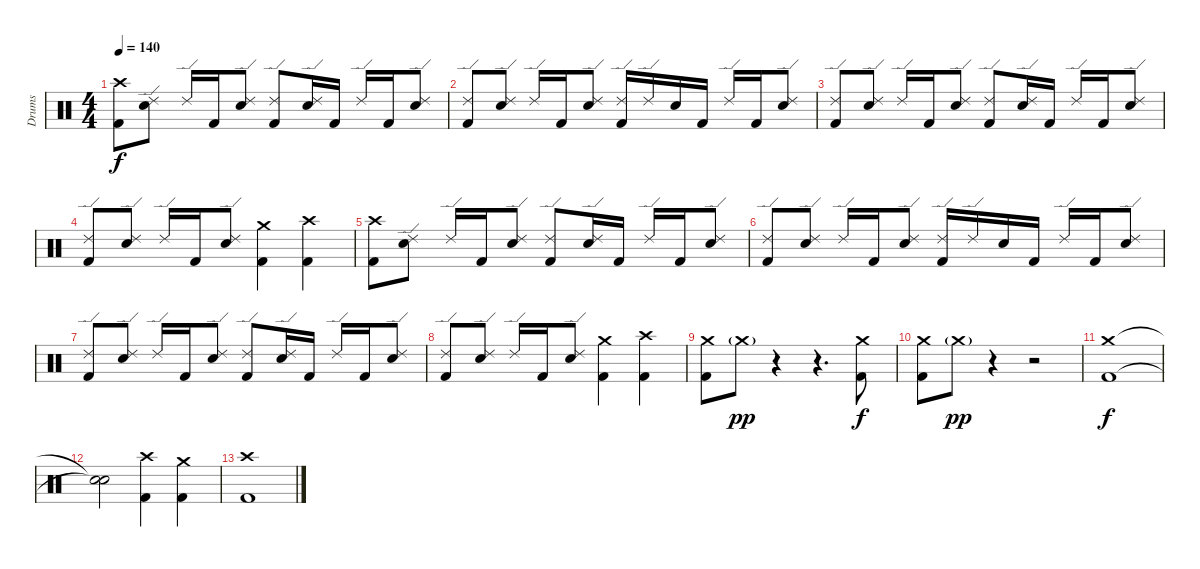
\track ("Drums" "Drums") {instrument percussion}
\staff {score}
\articulation defaults
\ts (4 4)
\tempo 140
\clef neutral
\ks c
("Crash high (hit)" "Kick (hit) 2").8{dy f} ("Ride (edge) 2" "Electric Snare (hit)").8 "Ride (edge) 2".16 "Kick (hit) 2".16 ("Ride (edge) 2" "Electric Snare (hit)").8 ("Ride (edge) 2" "Kick (hit) 2").8 ("Ride (edge) 2" "Electric Snare (hit)").16 "Kick (hit) 2".16 "Ride (edge) 2".16 "Kick (hit) 2".16 ("Ride (edge) 2" "Electric Snare (hit)").8 |
("Ride (edge) 2" "Kick (hit) 2").8 ("Ride (edge) 2" "Electric Snare (hit)").8 "Ride (edge) 2".16 "Kick (hit) 2".16 ("Ride (edge) 2" "Electric Snare (hit)").8 ("Ride (edge) 2" "Kick (hit) 2").16 "Ride (edge) 2".16 "Electric Snare (hit)".16 "Kick (hit) 2".16 "Ride (edge) 2".16 "Kick (hit) 2".16 ("Ride (edge) 2" "Electric Snare (hit)").8 |
("Ride (edge) 2" "Kick (hit) 2").8 ("Ride (edge) 2" "Electric Snare (hit)").8 "Ride (edge) 2".16 "Kick (hit) 2".16 ("Ride (edge) 2" "Electric Snare (hit)").8 ("Ride (edge) 2" "Kick (hit) 2").8 ("Ride (edge) 2" "Electric Snare (hit)").16 "Kick (hit) 2".16 "Ride (edge) 2".16 "Kick (hit) 2".16 ("Ride (edge) 2" "Electric Snare (hit)").8 |
("Ride (edge) 2" "Kick (hit) 2").8 ("Ride (edge) 2" "Electric Snare (hit)").8 "Ride (edge) 2".16 "Kick (hit) 2".16 ("Ride (edge) 2" "Electric Snare (hit)").8 ("Crash medium (hit)" "Kick (hit) 2").4 ("Crash high (hit)" "Kick (hit) 2").4 |
("Crash high (hit)" "Kick (hit) 2").8 ("Ride (edge) 2" "Electric Snare (hit)").8 "Ride (edge) 2".16 "Kick (hit) 2".16 ("Ride (edge) 2" "Electric Snare (hit)").8 ("Ride (edge) 2" "Kick (hit) 2").8 ("Ride (edge) 2" "Electric Snare (hit)").16 "Kick (hit) 2".16 "Ride (edge) 2".16 "Kick (hit) 2".16 ("Ride (edge) 2" "Electric Snare (hit)").8 |
("Ride (edge) 2" "Kick (hit) 2").8 ("Ride (edge) 2" "Electric Snare (hit)").8 "Ride (edge) 2".16 "Kick (hit) 2".16 ("Ride (edge) 2" "Electric Snare (hit)").8 ("Ride (edge) 2" "Kick (hit) 2").16 "Ride (edge) 2".16 "Electric Snare (hit)".16 "Kick (hit) 2".16 "Ride (edge) 2".16 "Kick (hit) 2".16 ("Ride (edge) 2" "Electric Snare (hit)").8 |
("Ride (edge) 2" "Kick (hit) 2").8 ("Ride (edge) 2" "Electric Snare (hit)").8 "Ride (edge) 2".16 "Kick (hit) 2".16 ("Ride (edge) 2" "Electric Snare (hit)").8 ("Ride (edge) 2" "Kick (hit) 2").8 ("Ride (edge) 2" "Electric Snare (hit)").16 "Kick (hit) 2".16 "Ride (edge) 2".16 "Kick (hit) 2".16 ("Ride (edge) 2" "Electric Snare (hit)").8 |
("Ride (edge) 2" "Kick (hit) 2").8 ("Ride (edge) 2" "Electric Snare (hit)").8 "Ride (edge) 2".16 "Kick (hit) 2".16 ("Ride (edge) 2" "Electric Snare (hit)").8 ("Crash medium (hit)" "Kick (hit) 2").4 ("Crash high (hit)" "Kick (hit) 2").4 |
("Crash medium (hit)" "Kick (hit) 2").8 "Crash medium (hit)"{g}.8{dy pp} r.4 r.4{d} ("Crash medium (hit)" "Kick (hit) 2").8{dy f} |
("Crash medium (hit)" "Kick (hit) 2").8 "Crash medium (hit)"{g}.8{dy pp} r.4 r.2 |
("Crash medium (hit)" "Kick (hit) 2").1{dy f} |
("Snare (hit)"{t} "Snare (hit)"{t}).2 ("Crash high (hit)" "Kick (hit) 2").4 ("Crash medium (hit)" "Kick (hit) 2").4 |
("Crash high (hit)" "Kick (hit) 2").1
